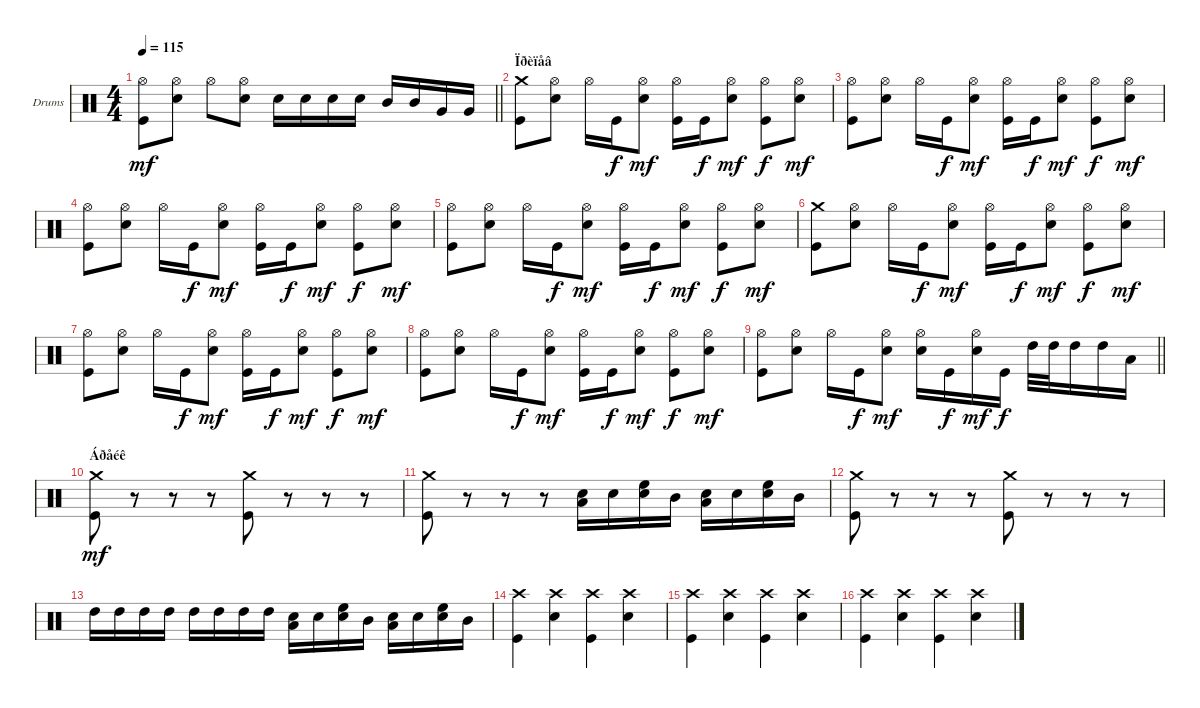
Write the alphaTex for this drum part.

\bracketExtendMode groupsimilarinstruments
\firstSystemTrackNameOrientation horizontal
\otherSystemsTrackNameOrientation horizontal
\track ("Drumkit" "Drums") {instrument percussion}
\staff {score}
\articulation defaults
\ts (4 4)
\tempo 115
\clef neutral
\barLineRight lightlight
\ks c
("Hi-Hat (open)" "Kick (hit)").8{dy mf} ("Hi-Hat (open)" "Snare (hit) 2").8 "Hi-Hat (open)".8 ("Hi-Hat (open)" "Snare (hit) 2").8 "Snare (hit) 2".16 "Snare (hit) 2".16 "Snare (hit) 2".16 "Snare (hit) 2".16 "Mid Tom (hit)".16 "Mid Tom (hit)".16 "Very Low Tom (hit)".16 "Very Low Tom (hit)".16 |
\section ("" "Ïðèïåâ")
("Crash medium (hit)" "Kick (hit)").8 ("Hi-Hat (open)" "Snare (hit) 2").8 "Hi-Hat (open)".16 "Kick (hit)".16{dy f} ("Hi-Hat (open)" "Snare (hit) 2").8{dy mf} ("Hi-Hat (open)" "Kick (hit)").16 "Kick (hit)".16{dy f} ("Hi-Hat (open)" "Snare (hit) 2").8{dy mf} ("Kick (hit)" "Hi-Hat (open)").8{dy f} ("Hi-Hat (open)" "Snare (hit) 2").8{dy mf} |
("Hi-Hat (open)" "Kick (hit)").8 ("Hi-Hat (open)" "Snare (hit) 2").8 "Hi-Hat (open)".16 "Kick (hit)".16{dy f} ("Hi-Hat (open)" "Snare (hit) 2").8{dy mf} ("Hi-Hat (open)" "Kick (hit)").16 "Kick (hit)".16{dy f} ("Hi-Hat (open)" "Snare (hit) 2").8{dy mf} ("Kick (hit)" "Hi-Hat (open)").8{dy f} ("Hi-Hat (open)" "Snare (hit) 2").8{dy mf} |
("Hi-Hat (open)" "Kick (hit)").8 ("Hi-Hat (open)" "Snare (hit) 2").8 "Hi-Hat (open)".16 "Kick (hit)".16{dy f} ("Hi-Hat (open)" "Snare (hit) 2").8{dy mf} ("Hi-Hat (open)" "Kick (hit)").16 "Kick (hit)".16{dy f} ("Hi-Hat (open)" "Snare (hit) 2").8{dy mf} ("Kick (hit)" "Hi-Hat (open)").8{dy f} ("Hi-Hat (open)" "Snare (hit) 2").8{dy mf} |
("Hi-Hat (open)" "Kick (hit)").8 ("Hi-Hat (open)" "Snare (hit) 2").8 "Hi-Hat (open)".16 "Kick (hit)".16{dy f} ("Hi-Hat (open)" "Snare (hit) 2").8{dy mf} ("Hi-Hat (open)" "Kick (hit)").16 "Kick (hit)".16{dy f} ("Hi-Hat (open)" "Snare (hit) 2").8{dy mf} ("Kick (hit)" "Hi-Hat (open)").8{dy f} ("Hi-Hat (open)" "Snare (hit) 2").8{dy mf} |
("Crash medium (hit)" "Kick (hit)").8 ("Hi-Hat (open)" "Snare (hit) 2").8 "Hi-Hat (open)".16 "Kick (hit)".16{dy f} ("Hi-Hat (open)" "Snare (hit) 2").8{dy mf} ("Hi-Hat (open)" "Kick (hit)").16 "Kick (hit)".16{dy f} ("Hi-Hat (open)" "Snare (hit) 2").8{dy mf} ("Kick (hit)" "Hi-Hat (open)").8{dy f} ("Hi-Hat (open)" "Snare (hit) 2").8{dy mf} |
("Hi-Hat (open)" "Kick (hit)").8 ("Hi-Hat (open)" "Snare (hit) 2").8 "Hi-Hat (open)".16 "Kick (hit)".16{dy f} ("Hi-Hat (open)" "Snare (hit) 2").8{dy mf} ("Hi-Hat (open)" "Kick (hit)").16 "Kick (hit)".16{dy f} ("Hi-Hat (open)" "Snare (hit) 2").8{dy mf} ("Kick (hit)" "Hi-Hat (open)").8{dy f} ("Hi-Hat (open)" "Snare (hit) 2").8{dy mf} |
("Hi-Hat (open)" "Kick (hit)").8 ("Hi-Hat (open)" "Snare (hit) 2").8 "Hi-Hat (open)".16 "Kick (hit)".16{dy f} ("Hi-Hat (open)" "Snare (hit) 2").8{dy mf} ("Hi-Hat (open)" "Kick (hit)").16 "Kick (hit)".16{dy f} ("Hi-Hat (open)" "Snare (hit) 2").8{dy mf} ("Kick (hit)" "Hi-Hat (open)").8{dy f} ("Hi-Hat (open)" "Snare (hit) 2").8{dy mf} |
\barLineRight lightlight
("Hi-Hat (open)" "Kick (hit)").8 ("Hi-Hat (open)" "Snare (hit) 2").8 "Hi-Hat (open)".16 "Kick (hit)".16{dy f} ("Hi-Hat (open)" "Snare (hit) 2").8{dy mf} ("Hi-Hat (open)" "Snare (hit) 2").16 "Kick (hit)".16{dy f} ("Hi-Hat (open)" "Snare (hit) 2").16{dy mf} "Kick (hit)".16{dy f} "High Tom (hit)".32 "High Tom (hit)".32 "High Tom (hit)".16 "High Tom (hit)".16 "Low Tom (hit)".16 |
\section ("" "Áðåéê")
("Crash medium (hit)" "Kick (hit)").8{dy mf} r.8 r.8 r.8 ("Crash medium (hit)" "Kick (hit)").8 r.8 r.8 r.8 |
("Crash medium (hit)" "Kick (hit)").8 r.8 r.8 r.8 ("Low Tom (hit)" "Snare (hit) 2").16 "Snare (hit) 2".16 ("Snare (hit) 2" "High Floor Tom (hit)").16 "Mid Tom (hit)".16 ("Low Tom (hit)" "Snare (hit) 2").16 "Snare (hit) 2".16 ("Snare (hit) 2" "High Floor Tom (hit)").16 "Mid Tom (hit)".16 |
("Crash medium (hit)" "Kick (hit)").8 r.8 r.8 r.8 ("Crash medium (hit)" "Kick (hit)").8 r.8 r.8 r.8 |
"High Tom (hit)".16 "High Tom (hit)".16 "High Tom (hit)".16 "High Tom (hit)".16 "High Tom (hit)".16 "High Tom (hit)".16 "High Tom (hit)".16 "High Tom (hit)".16 ("Low Tom (hit)" "Snare (hit) 2").16 "Snare (hit) 2".16 ("Snare (hit) 2" "High Floor Tom (hit)").16 "Mid Tom (hit)".16 ("Low Tom (hit)" "Snare (hit) 2").16 "Snare (hit) 2".16 ("Snare (hit) 2" "High Floor Tom (hit)").16 "Mid Tom (hit)".16 |
("Crash high (hit)" "Kick (hit)").4 ("Crash high (hit)" "Snare (hit) 2").4 ("Crash high (hit)" "Kick (hit)").4 ("Crash high (hit)" "Snare (hit) 2").4 |
("Crash high (hit)" "Kick (hit)").4 ("Crash high (hit)" "Snare (hit) 2").4 ("Crash high (hit)" "Kick (hit)").4 ("Crash high (hit)" "Snare (hit) 2").4 |
("Crash high (hit)" "Kick (hit)").4 ("Crash high (hit)" "Snare (hit) 2").4 ("Crash high (hit)" "Kick (hit)").4 ("Crash high (hit)" "Snare (hit) 2").4
